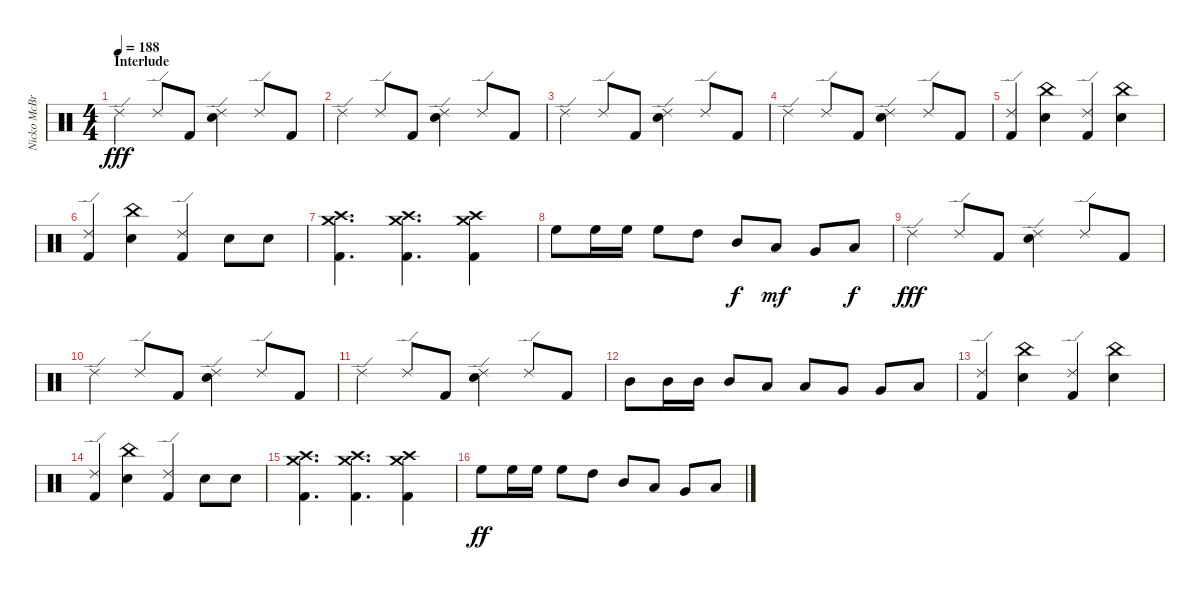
\track ("Nicko McBrain" "Nicko McBr") {instrument percussion}
\staff {score}
\articulation defaults
\ts (4 4)
\section ("" "Interlude")
\tempo 188
\clef neutral
\ks c "Ride (edge) 2".4{dy fff} "Ride (edge) 2".8 "Kick (hit) 2".8
("Ride (edge) 2" "Electric Snare (hit)").4 "Ride (edge) 2".8 "Kick (hit) 2".8 |
"Ride (edge) 2".4 "Ride (edge) 2".8 "Kick (hit) 2".8 ("Ride (edge) 2" "Electric Snare (hit)").4 "Ride (edge) 2".8 "Kick (hit) 2".8 |
"Ride (edge) 2".4 "Ride (edge) 2".8 "Kick (hit) 2".8 ("Ride (edge) 2" "Electric Snare (hit)").4 "Ride (edge) 2".8 "Kick (hit) 2".8 |
"Ride (edge) 2".4 "Ride (edge) 2".8 "Kick (hit) 2".8 ("Ride (edge) 2" "Electric Snare (hit)").4 "Ride (edge) 2".8 "Kick (hit) 2".8 |
("Ride (edge) 2" "Kick (hit) 2").4 ("China (hit)" "Electric Snare (hit)").4 ("Ride (edge) 2" "Kick (hit) 2").4 ("China (hit)" "Electric Snare (hit)").4 |
("Ride (edge) 2" "Kick (hit) 2").4 ("China (hit)" "Electric Snare (hit)").4 ("Ride (edge) 2" "Kick (hit) 2").4 "Electric Snare (hit)".8 "Electric Snare (hit)".8 |
("Crash medium (hit)" "Crash high (hit)" "Kick (hit) 2").4{d} ("Crash medium (hit)" "Crash high (hit)" "Kick (hit) 2").4{d} ("Crash medium (hit)" "Crash high (hit)" "Kick (hit) 2").4 |
"High Floor Tom (hit)".8 "High Floor Tom (hit)".16 "High Floor Tom (hit)".16 "High Floor Tom (hit)".8 "High Tom (hit)".8 "Mid Tom (hit)".8{dy f} "Low Tom (hit)".8{dy mf} "Very Low Tom (hit)".8 "Low Floor Tom (hit)".8{dy f} |
"Ride (edge) 2".4{dy fff} "Ride (edge) 2".8 "Kick (hit) 2".8 ("Ride (edge) 2" "Electric Snare (hit)").4 "Ride (edge) 2".8 "Kick (hit) 2".8 |
"Ride (edge) 2".4 "Ride (edge) 2".8 "Kick (hit) 2".8 ("Ride (edge) 2" "Electric Snare (hit)").4 "Ride (edge) 2".8 "Kick (hit) 2".8 |
"Ride (edge) 2".4 "Ride (edge) 2".8 "Kick (hit) 2".8 ("Ride (edge) 2" "Electric Snare (hit)").4 "Ride (edge) 2".8 "Kick (hit) 2".8 |
"Mid Tom (hit)".8 "Mid Tom (hit)".16 "Mid Tom (hit)".16 "Mid Tom (hit)".8 "Low Tom (hit)".8 "Low Tom (hit)".8 "Very Low Tom (hit)".8 "Very Low Tom (hit)".8 "Low Floor Tom (hit)".8 |
("Ride (edge) 2" "Kick (hit) 2").4 ("China (hit)" "Electric Snare (hit)").4 ("Ride (edge) 2" "Kick (hit) 2").4 ("China (hit)" "Electric Snare (hit)").4 |
("Ride (edge) 2" "Kick (hit) 2").4 ("China (hit)" "Electric Snare (hit)").4 ("Ride (edge) 2" "Kick (hit) 2").4 "Electric Snare (hit)".8 "Electric Snare (hit)".8 |
("Crash medium (hit)" "Crash high (hit)" "Kick (hit) 2").4{d} ("Crash medium (hit)" "Crash high (hit)" "Kick (hit) 2").4{d} ("Crash medium (hit)" "Crash high (hit)" "Kick (hit) 2").4 |
"High Floor Tom (hit)".8{dy ff} "High Floor Tom (hit)".16 "High Floor Tom (hit)".16 "High Floor Tom (hit)".8 "High Tom (hit)".8 "Mid Tom (hit)".8 "Low Tom (hit)".8 "Very Low Tom (hit)".8 "Low Floor Tom (hit)".8
